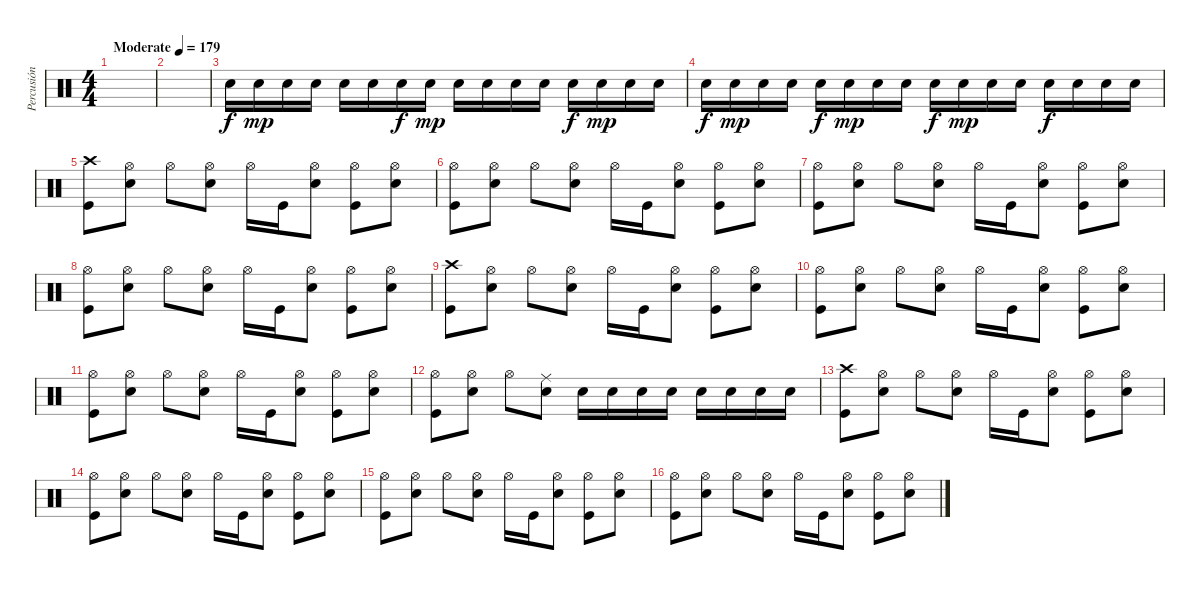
\track ("Percusión" "Percusión") {instrument percussion}
\staff {score}
\articulation defaults
\ts (4 4)
\tempo (179 "Moderate")
\clef neutral
\ks c
|
|
"Snare (hit) 2".16 "Snare (hit) 2".16{dy mp} "Snare (hit) 2".16 "Snare (hit) 2".16 "Snare (hit) 2".16 "Snare (hit) 2".16 "Snare (hit) 2".16{dy f} "Snare (hit) 2".16{dy mp} "Snare (hit) 2".16 "Snare (hit) 2".16 "Snare (hit) 2".16 "Snare (hit) 2".16 "Snare (hit) 2".16{dy f} "Snare (hit) 2".16{dy mp} "Snare (hit) 2".16 "Snare (hit) 2".16 |
"Snare (hit) 2".16{dy f} "Snare (hit) 2".16{dy mp} "Snare (hit) 2".16 "Snare (hit) 2".16 "Snare (hit) 2".16{dy f} "Snare (hit) 2".16{dy mp} "Snare (hit) 2".16 "Snare (hit) 2".16 "Snare (hit) 2".16{dy f} "Snare (hit) 2".16{dy mp} "Snare (hit) 2".16 "Snare (hit) 2".16 "Snare (hit) 2".16{dy f} "Snare (hit) 2".16 "Snare (hit) 2".16 "Snare (hit) 2".16 |
("Crash high (hit)" "Kick (hit)").8 ("Hi-Hat (open)" "Snare (hit) 2").8 "Hi-Hat (open)".8 ("Hi-Hat (open)" "Snare (hit) 2").8 "Hi-Hat (open)".16 "Kick (hit)".16 ("Hi-Hat (open)" "Snare (hit) 2").8 ("Hi-Hat (open)" "Kick (hit)").8 ("Hi-Hat (open)" "Snare (hit) 2").8 |
("Hi-Hat (open)" "Kick (hit)").8 ("Hi-Hat (open)" "Snare (hit) 2").8 "Hi-Hat (open)".8 ("Hi-Hat (open)" "Snare (hit) 2").8 "Hi-Hat (open)".16 "Kick (hit)".16 ("Hi-Hat (open)" "Snare (hit) 2").8 ("Hi-Hat (open)" "Kick (hit)").8 ("Hi-Hat (open)" "Snare (hit) 2").8 |
("Hi-Hat (open)" "Kick (hit)").8 ("Hi-Hat (open)" "Snare (hit) 2").8 "Hi-Hat (open)".8 ("Hi-Hat (open)" "Snare (hit) 2").8 "Hi-Hat (open)".16 "Kick (hit)".16 ("Hi-Hat (open)" "Snare (hit) 2").8 ("Hi-Hat (open)" "Kick (hit)").8 ("Hi-Hat (open)" "Snare (hit) 2").8 |
("Hi-Hat (open)" "Kick (hit)").8 ("Hi-Hat (open)" "Snare (hit) 2").8 "Hi-Hat (open)".8 ("Hi-Hat (open)" "Snare (hit) 2").8 "Hi-Hat (open)".16 "Kick (hit)".16 ("Hi-Hat (open)" "Snare (hit) 2").8 ("Hi-Hat (open)" "Kick (hit)").8 ("Hi-Hat (open)" "Snare (hit) 2").8 |
("Crash high (hit)" "Kick (hit)").8 ("Hi-Hat (open)" "Snare (hit) 2").8 "Hi-Hat (open)".8 ("Hi-Hat (open)" "Snare (hit) 2").8 "Hi-Hat (open)".16 "Kick (hit)".16 ("Hi-Hat (open)" "Snare (hit) 2").8 ("Hi-Hat (open)" "Kick (hit)").8 ("Hi-Hat (open)" "Snare (hit) 2").8 |
("Hi-Hat (open)" "Kick (hit)").8 ("Hi-Hat (open)" "Snare (hit) 2").8 "Hi-Hat (open)".8 ("Hi-Hat (open)" "Snare (hit) 2").8 "Hi-Hat (open)".16 "Kick (hit)".16 ("Hi-Hat (open)" "Snare (hit) 2").8 ("Hi-Hat (open)" "Kick (hit)").8 ("Hi-Hat (open)" "Snare (hit) 2").8 |
("Hi-Hat (open)" "Kick (hit)").8 ("Hi-Hat (open)" "Snare (hit) 2").8 "Hi-Hat (open)".8 ("Hi-Hat (open)" "Snare (hit) 2").8 "Hi-Hat (open)".16 "Kick (hit)".16 ("Hi-Hat (open)" "Snare (hit) 2").8 ("Hi-Hat (open)" "Kick (hit)").8 ("Hi-Hat (open)" "Snare (hit) 2").8 |
("Hi-Hat (open)" "Kick (hit)").8 ("Hi-Hat (open)" "Snare (hit) 2").8 "Hi-Hat (open)".8 ("Ride (middle)" "Snare (hit) 2").8 "Snare (hit) 2".16 "Snare (hit) 2".16 "Snare (hit) 2".16 "Snare (hit) 2".16 "Snare (hit) 2".16 "Snare (hit) 2".16 "Snare (hit) 2".16 "Snare (hit) 2".16 |
("Crash high (hit)" "Kick (hit)").8 ("Hi-Hat (open)" "Snare (hit) 2").8 "Hi-Hat (open)".8 ("Hi-Hat (open)" "Snare (hit) 2").8 "Hi-Hat (open)".16 "Kick (hit)".16 ("Hi-Hat (open)" "Snare (hit) 2").8 ("Hi-Hat (open)" "Kick (hit)").8 ("Hi-Hat (open)" "Snare (hit) 2").8 |
("Hi-Hat (open)" "Kick (hit)").8 ("Hi-Hat (open)" "Snare (hit) 2").8 "Hi-Hat (open)".8 ("Hi-Hat (open)" "Snare (hit) 2").8 "Hi-Hat (open)".16 "Kick (hit)".16 ("Hi-Hat (open)" "Snare (hit) 2").8 ("Hi-Hat (open)" "Kick (hit)").8 ("Hi-Hat (open)" "Snare (hit) 2").8 |
("Hi-Hat (open)" "Kick (hit)").8 ("Hi-Hat (open)" "Snare (hit) 2").8 "Hi-Hat (open)".8 ("Hi-Hat (open)" "Snare (hit) 2").8 "Hi-Hat (open)".16 "Kick (hit)".16 ("Hi-Hat (open)" "Snare (hit) 2").8 ("Hi-Hat (open)" "Kick (hit)").8 ("Hi-Hat (open)" "Snare (hit) 2").8 |
("Hi-Hat (open)" "Kick (hit)").8 ("Hi-Hat (open)" "Snare (hit) 2").8 "Hi-Hat (open)".8 ("Hi-Hat (open)" "Snare (hit) 2").8 "Hi-Hat (open)".16 "Kick (hit)".16 ("Hi-Hat (open)" "Snare (hit) 2").8 ("Hi-Hat (open)" "Kick (hit)").8 ("Hi-Hat (open)" "Snare (hit) 2").8
